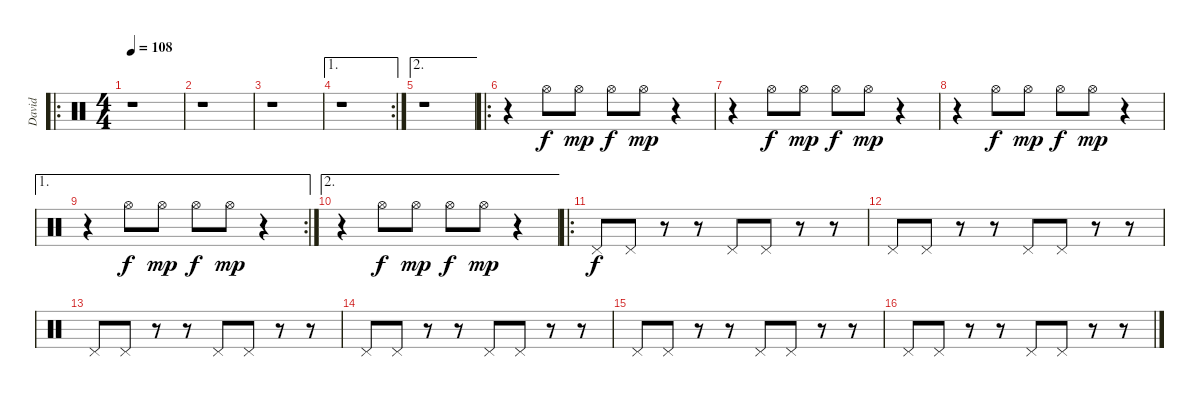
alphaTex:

\track ("David" "David") {instrument percussion}
\staff {score}
\articulation defaults
\ro
\ts (4 4)
\tempo 108
\clef neutral
\ks c
r.1{dy f} |
r.1 |
r.1 |
\ae 1
\rc 2
r.1 |
\ae 2
r.1 |
\ro
r.4 "Hi-Hat (open)".8 "Hi-Hat (open)".8{dy mp} "Hi-Hat (open)".8{dy f} "Hi-Hat (open)".8{dy mp} r.4 |
r.4 "Hi-Hat (open)".8{dy f} "Hi-Hat (open)".8{dy mp} "Hi-Hat (open)".8{dy f} "Hi-Hat (open)".8{dy mp} r.4 |
r.4 "Hi-Hat (open)".8{dy f} "Hi-Hat (open)".8{dy mp} "Hi-Hat (open)".8{dy f} "Hi-Hat (open)".8{dy mp} r.4 |
\ae 1
\rc 2
r.4 "Hi-Hat (open)".8{dy f} "Hi-Hat (open)".8{dy mp} "Hi-Hat (open)".8{dy f} "Hi-Hat (open)".8{dy mp} r.4 |
\ae 2
r.4 "Hi-Hat (open)".8{dy f} "Hi-Hat (open)".8{dy mp} "Hi-Hat (open)".8{dy f} "Hi-Hat (open)".8{dy mp} r.4 |
\ro "Pedal Hi-Hat (hit)".8{dy f} "Pedal Hi-Hat (hit)".8
r.8 r.8 "Pedal Hi-Hat (hit)".8 "Pedal Hi-Hat (hit)".8 r.8 r.8 |
"Pedal Hi-Hat (hit)".8 "Pedal Hi-Hat (hit)".8 r.8 r.8 "Pedal Hi-Hat (hit)".8 "Pedal Hi-Hat (hit)".8 r.8 r.8 |
"Pedal Hi-Hat (hit)".8 "Pedal Hi-Hat (hit)".8 r.8 r.8 "Pedal Hi-Hat (hit)".8 "Pedal Hi-Hat (hit)".8 r.8 r.8 |
"Pedal Hi-Hat (hit)".8 "Pedal Hi-Hat (hit)".8 r.8 r.8 "Pedal Hi-Hat (hit)".8 "Pedal Hi-Hat (hit)".8 r.8 r.8 |
"Pedal Hi-Hat (hit)".8 "Pedal Hi-Hat (hit)".8 r.8 r.8 "Pedal Hi-Hat (hit)".8 "Pedal Hi-Hat (hit)".8 r.8 r.8 |
"Pedal Hi-Hat (hit)".8 "Pedal Hi-Hat (hit)".8 r.8 r.8 "Pedal Hi-Hat (hit)".8 "Pedal Hi-Hat (hit)".8 r.8 r.8
